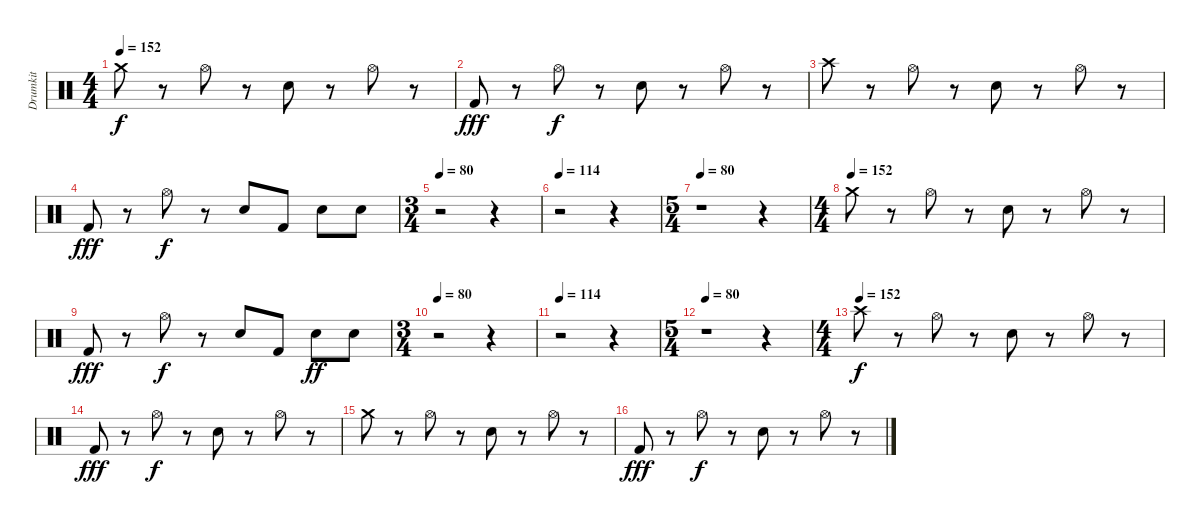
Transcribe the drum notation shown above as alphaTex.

\track ("Drumkit" "Drumkit") {instrument percussion}
\staff {score}
\articulation defaults
\ts (4 4)
\tempo 152
\clef neutral
\ks c "Crash medium (hit)".8{dy f}
r.8 "Hi-Hat (open)".8 r.8 "Snare (hit) 2".8 r.8 "Hi-Hat (open)".8 r.8 |
"Kick (hit) 2".8{dy fff} r.8 "Hi-Hat (open)".8{dy f} r.8 "Snare (hit) 2".8 r.8 "Hi-Hat (open)".8 r.8 |
"Crash high (hit)".8 r.8 "Hi-Hat (open)".8 r.8 "Snare (hit) 2".8 r.8 "Hi-Hat (open)".8 r.8 |
"Kick (hit) 2".8{dy fff} r.8 "Hi-Hat (open)".8{dy f} r.8 "Snare (hit) 2".8 "Kick (hit) 2".8 "Snare (hit) 2".8 "Snare (hit) 2".8 |
\ts (3 4)
\tempo 80
r.2 r.4 |
\tempo 114
r.2 r.4 |
\ts (5 4)
\tempo 80
r.1 r.4 |
\ts (4 4)
\tempo (152)
"Crash medium (hit)".8 r.8 "Hi-Hat (open)".8 r.8 "Snare (hit) 2".8 r.8 "Hi-Hat (open)".8 r.8 |
"Kick (hit) 2".8{dy fff} r.8 "Hi-Hat (open)".8{dy f} r.8 "Snare (hit) 2".8 "Kick (hit) 2".8 "Snare (hit) 2".8{dy ff} "Snare (hit) 2".8 |
\ts (3 4)
\tempo 80
r.2 r.4 |
\tempo 114
r.2 r.4 |
\ts (5 4)
\tempo 80
r.1 r.4 |
\ts (4 4)
\tempo (152)
"Crash high (hit)".8{dy f} r.8 "Hi-Hat (open)".8 r.8 "Snare (hit) 2".8 r.8 "Hi-Hat (open)".8 r.8 |
"Kick (hit) 2".8{dy fff} r.8 "Hi-Hat (open)".8{dy f} r.8 "Snare (hit) 2".8 r.8 "Hi-Hat (open)".8 r.8 |
"Crash medium (hit)".8 r.8 "Hi-Hat (open)".8 r.8 "Snare (hit) 2".8 r.8 "Hi-Hat (open)".8 r.8 |
"Kick (hit) 2".8{dy fff} r.8 "Hi-Hat (open)".8{dy f} r.8 "Snare (hit) 2".8 r.8 "Hi-Hat (open)".8 r.8
